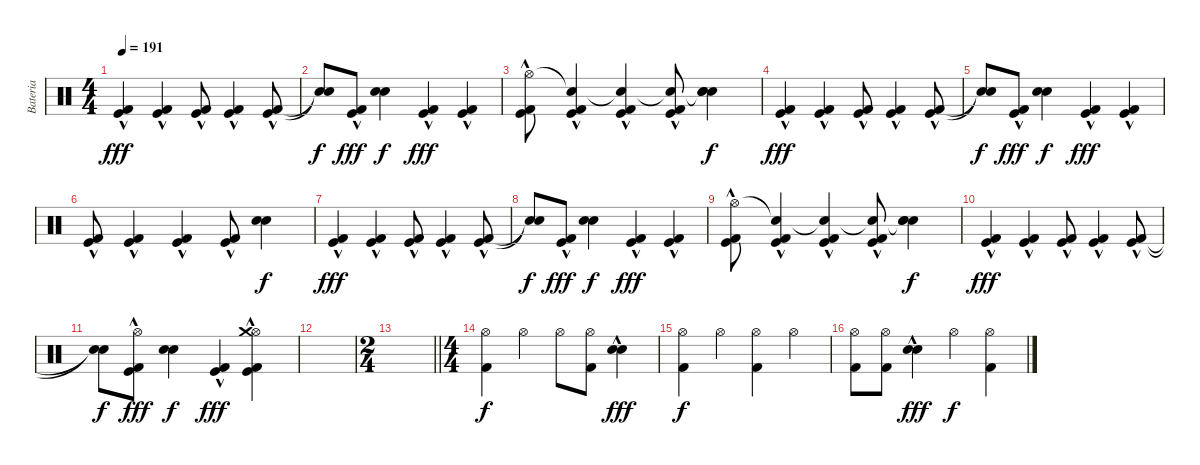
\track ("Bateria" "Bateria") {instrument percussion}
\staff {score}
\articulation defaults
\ts (4 4)
\tempo 191
\clef neutral
\ks c
("Kick (hit)" "Kick (hit) 2"{hac}).4{dy fff} ("Kick (hit)" "Kick (hit) 2"{hac}).4 ("Kick (hit)" "Kick (hit) 2"{hac}).8 ("Kick (hit)" "Kick (hit) 2"{hac}).4 ("Kick (hit)" "Kick (hit) 2"{hac}).8 |
("Snare (hit)"{t} "Snare (hit)"{t}).8{dy f} ("Kick (hit)" "Kick (hit) 2"{hac}).8{dy fff} ("Electric Snare (hit)" "Electric Snare (hit)").4{dy f} ("Kick (hit)" "Kick (hit) 2"{hac}).4{dy fff} ("Kick (hit)" "Kick (hit) 2"{hac}).4 |
("Hi-Hat (open)" "Kick (hit)" "Kick (hit) 2"{hac}).8 ("Snare (hit)"{t} "Kick (hit)" "Kick (hit) 2"{hac}).4 ("Snare (hit)"{t} "Kick (hit)" "Kick (hit) 2"{hac}).4 ("Snare (hit)"{t} "Kick (hit)" "Kick (hit) 2"{hac}).8 ("Snare (hit)"{t} "Electric Snare (hit)" "Electric Snare (hit)").4{dy f} |
("Kick (hit)" "Kick (hit) 2"{hac}).4{dy fff} ("Kick (hit)" "Kick (hit) 2"{hac}).4 ("Kick (hit)" "Kick (hit) 2"{hac}).8 ("Kick (hit)" "Kick (hit) 2"{hac}).4 ("Kick (hit)" "Kick (hit) 2"{hac}).8 |
("Snare (hit)"{t} "Snare (hit)"{t}).8{dy f} ("Kick (hit)" "Kick (hit) 2"{hac}).8{dy fff} ("Electric Snare (hit)" "Electric Snare (hit)").4{dy f} ("Kick (hit)" "Kick (hit) 2"{hac}).4{dy fff} ("Kick (hit)" "Kick (hit) 2"{hac}).4 |
("Kick (hit)" "Kick (hit) 2"{hac}).8 ("Kick (hit)" "Kick (hit) 2"{hac}).4 ("Kick (hit)" "Kick (hit) 2"{hac}).4 ("Kick (hit)" "Kick (hit) 2"{hac}).8 ("Electric Snare (hit)" "Electric Snare (hit)").4{dy f} |
("Kick (hit)" "Kick (hit) 2"{hac}).4{dy fff} ("Kick (hit)" "Kick (hit) 2"{hac}).4 ("Kick (hit)" "Kick (hit) 2"{hac}).8 ("Kick (hit)" "Kick (hit) 2"{hac}).4 ("Kick (hit)" "Kick (hit) 2"{hac}).8 |
("Snare (hit)"{t} "Snare (hit)"{t}).8{dy f} ("Kick (hit)" "Kick (hit) 2"{hac}).8{dy fff} ("Electric Snare (hit)" "Electric Snare (hit)").4{dy f} ("Kick (hit)" "Kick (hit) 2"{hac}).4{dy fff} ("Kick (hit)" "Kick (hit) 2"{hac}).4 |
("Hi-Hat (open)" "Kick (hit)" "Kick (hit) 2"{hac}).8 ("Snare (hit)"{t} "Kick (hit)" "Kick (hit) 2"{hac}).4 ("Snare (hit)"{t} "Kick (hit)" "Kick (hit) 2"{hac}).4 ("Snare (hit)"{t} "Kick (hit)" "Kick (hit) 2"{hac}).8 ("Snare (hit)"{t} "Electric Snare (hit)" "Electric Snare (hit)").4{dy f} |
("Kick (hit)" "Kick (hit) 2"{hac}).4{dy fff} ("Kick (hit)" "Kick (hit) 2"{hac}).4 ("Kick (hit)" "Kick (hit) 2"{hac}).8 ("Kick (hit)" "Kick (hit) 2"{hac}).4 ("Kick (hit)" "Kick (hit) 2"{hac}).8 |
("Snare (hit)"{t} "Snare (hit)"{t}).8{dy f} ("Hi-Hat (open)" "Kick (hit)" "Kick (hit) 2"{hac}).8{dy fff} ("Electric Snare (hit)" "Electric Snare (hit)").4{dy f} ("Kick (hit)" "Kick (hit) 2"{hac}).4{dy fff} ("Hi-Hat (open)" "Crash medium (hit)" "Kick (hit)" "Kick (hit) 2"{hac}).4 |
|
\ts (2 4)
\barLineRight lightlight
|
\ts (4 4)
("Hi-Hat (open)" "Kick (hit) 2").4{dy f} "Hi-Hat (open)".4 "Hi-Hat (open)".8 ("Hi-Hat (open)" "Kick (hit) 2").8 ("Electric Snare (hit)"{hac} "Electric Snare (hit)"{hac}).4{dy fff} |
("Hi-Hat (open)" "Kick (hit) 2").4{dy f} "Hi-Hat (open)".4 ("Hi-Hat (open)" "Kick (hit) 2").4 "Hi-Hat (open)".4 |
("Hi-Hat (open)" "Kick (hit) 2").8 ("Hi-Hat (open)" "Kick (hit) 2").8 ("Electric Snare (hit)"{hac} "Electric Snare (hit)"{hac}).4{dy fff} "Hi-Hat (open)".4{dy f} ("Hi-Hat (open)" "Kick (hit) 2").4
